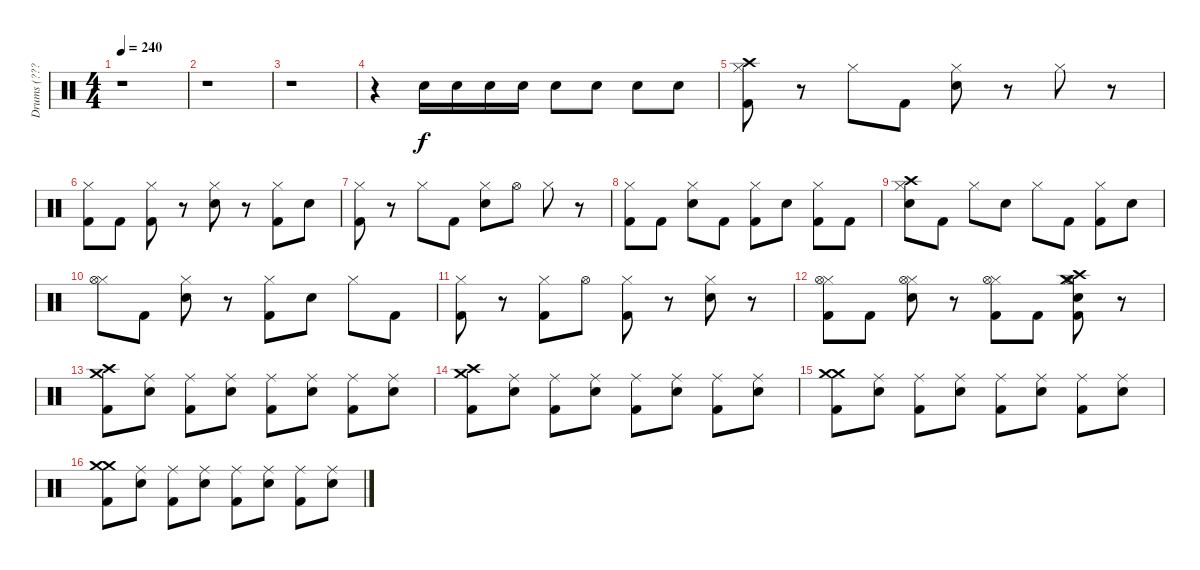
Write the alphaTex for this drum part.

\track ("Drums (????)" "Drums (???") {instrument percussion}
\staff {score}
\articulation defaults
\ts (4 4)
\tempo 240
\clef neutral
\ks c
r.1{dy f} |
r.1 |
r.1 |
r.4 "Snare (hit) 2".16 "Snare (hit) 2".16 "Snare (hit) 2".16 "Snare (hit) 2".16 "Snare (hit) 2".8 "Snare (hit) 2".8 "Snare (hit) 2".8 "Snare (hit) 2".8 |
("Hi-Hat (closed)" "Crash high (hit)" "Kick (hit) 2").8 r.8 "Hi-Hat (closed)".8 "Kick (hit) 2".8 ("Hi-Hat (closed)" "Snare (hit) 2").8 r.8 "Hi-Hat (closed)".8 r.8 |
("Hi-Hat (closed)" "Kick (hit) 2").8 "Kick (hit) 2".8 ("Hi-Hat (closed)" "Kick (hit) 2").8 r.8 ("Hi-Hat (closed)" "Snare (hit) 2").8 r.8 ("Hi-Hat (closed)" "Kick (hit) 2").8 "Snare (hit) 2".8 |
("Hi-Hat (closed)" "Kick (hit) 2").8 r.8 "Hi-Hat (closed)".8 "Kick (hit) 2".8 ("Hi-Hat (closed)" "Snare (hit) 2").8 "Hi-Hat (open)".8 "Hi-Hat (closed)".8 r.8 |
("Hi-Hat (closed)" "Kick (hit) 2").8 "Kick (hit) 2".8 ("Hi-Hat (closed)" "Snare (hit) 2").8 "Kick (hit) 2".8 ("Hi-Hat (closed)" "Kick (hit) 2").8 "Snare (hit) 2".8 ("Hi-Hat (closed)" "Kick (hit) 2").8 "Kick (hit) 2".8 |
("Hi-Hat (closed)" "Crash high (hit)" "Snare (hit) 2").8 "Kick (hit) 2".8 "Hi-Hat (closed)".8 "Snare (hit) 2".8 "Hi-Hat (closed)".8 "Kick (hit) 2".8 ("Hi-Hat (closed)" "Kick (hit) 2").8 "Snare (hit) 2".8 |
("Hi-Hat (closed)" "Hi-Hat (open)").8 "Kick (hit) 2".8 ("Hi-Hat (closed)" "Snare (hit) 2").8 r.8 ("Hi-Hat (closed)" "Kick (hit) 2").8 "Snare (hit) 2".8 "Hi-Hat (closed)".8 "Kick (hit) 2".8 |
("Hi-Hat (closed)" "Kick (hit) 2").8 r.8 ("Hi-Hat (closed)" "Kick (hit) 2").8 "Hi-Hat (open)".8 ("Hi-Hat (closed)" "Kick (hit) 2").8 r.8 ("Hi-Hat (closed)" "Snare (hit) 2").8 r.8 |
("Hi-Hat (closed)" "Hi-Hat (open)" "Kick (hit) 2").8 "Kick (hit) 2".8 ("Hi-Hat (closed)" "Hi-Hat (open)" "Snare (hit) 2").8 r.8 ("Hi-Hat (closed)" "Hi-Hat (open)" "Kick (hit) 2").8 "Kick (hit) 2".8 ("Hi-Hat (closed)" "Hi-Hat (open)" "Kick (hit) 2" "Snare (hit) 2" "Crash medium (hit)" "Crash high (hit)").8 r.8 |
("Crash medium (hit)" "Crash high (hit)" "Kick (hit) 2").8 ("Ride (middle)" "Snare (hit) 2").8 ("Ride (middle)" "Kick (hit) 2").8 ("Ride (middle)" "Snare (hit) 2").8 ("Ride (middle)" "Kick (hit) 2").8 ("Ride (middle)" "Snare (hit) 2").8 ("Ride (middle)" "Kick (hit) 2").8 ("Ride (middle)" "Snare (hit) 2").8 |
("Crash medium (hit)" "Crash high (hit)" "Kick (hit) 2").8 ("Ride (middle)" "Snare (hit) 2").8 ("Ride (middle)" "Kick (hit) 2").8 ("Ride (middle)" "Snare (hit) 2").8 ("Ride (middle)" "Kick (hit) 2").8 ("Ride (middle)" "Snare (hit) 2").8 ("Ride (middle)" "Kick (hit) 2").8 ("Ride (middle)" "Snare (hit) 2").8 |
("Crash medium (hit)" "Crash medium (hit)" "Kick (hit) 2").8 ("Ride (middle)" "Snare (hit) 2").8 ("Ride (middle)" "Kick (hit) 2").8 ("Ride (middle)" "Snare (hit) 2").8 ("Ride (middle)" "Kick (hit) 2").8 ("Ride (middle)" "Snare (hit) 2").8 ("Ride (middle)" "Kick (hit) 2").8 ("Ride (middle)" "Snare (hit) 2").8 |
("Crash medium (hit)" "Crash medium (hit)" "Kick (hit) 2").8 ("Ride (middle)" "Snare (hit) 2").8 ("Ride (middle)" "Kick (hit) 2").8 ("Ride (middle)" "Snare (hit) 2").8 ("Ride (middle)" "Kick (hit) 2").8 ("Ride (middle)" "Snare (hit) 2").8 ("Ride (middle)" "Kick (hit) 2").8 ("Ride (middle)" "Snare (hit) 2").8
